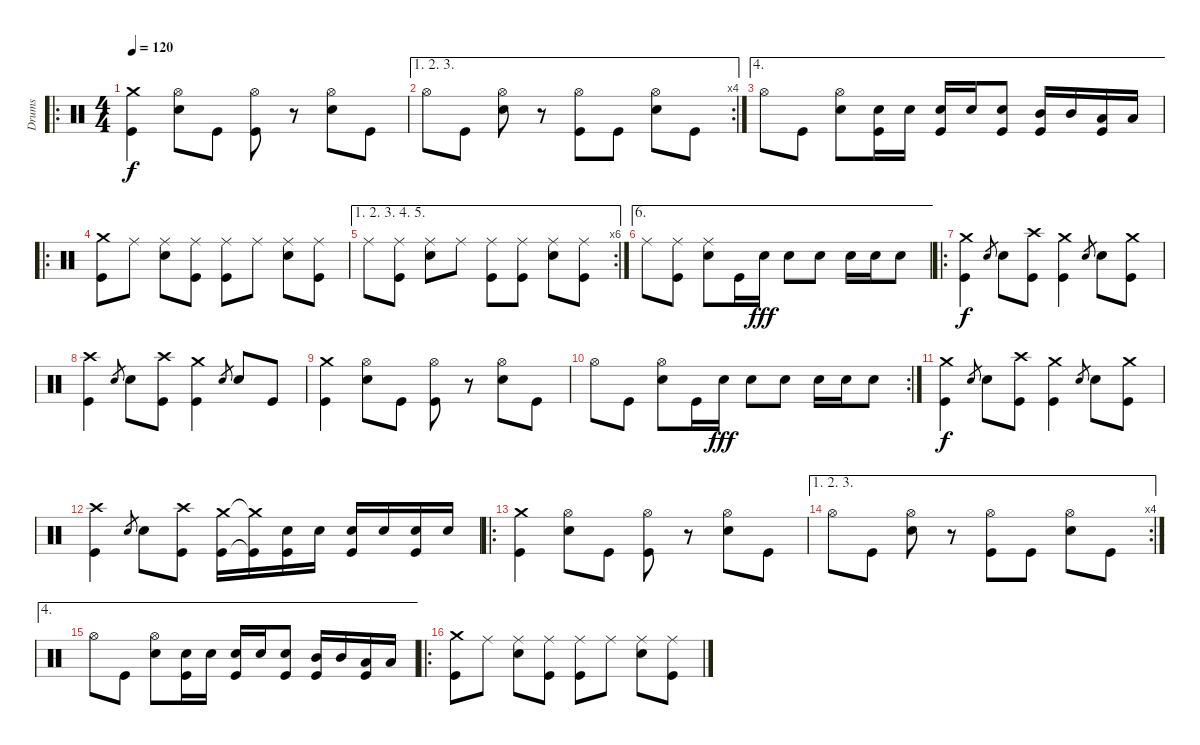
\track ("Drums" "Drums") {instrument percussion}
\staff {score}
\articulation defaults
\ro
\ts (4 4)
\tempo 120
\clef neutral
\ks c
("Crash medium (hit)" "Kick (hit)").4{dy f} ("Hi-Hat (open)" "Snare (hit) 2").8 "Kick (hit)".8 ("Hi-Hat (open)" "Kick (hit)").8 r.8 ("Hi-Hat (open)" "Snare (hit) 2").8 "Kick (hit)".8 |
\ae (1 2 3)
\rc 4 "Hi-Hat (open)".8 "Kick (hit)".8
("Hi-Hat (open)" "Snare (hit) 2").8 r.8 ("Hi-Hat (open)" "Kick (hit)").8 "Kick (hit)".8 ("Hi-Hat (open)" "Snare (hit) 2").8 "Kick (hit)".8 |
\ae 4 "Hi-Hat (open)".8 "Kick (hit)".8
("Hi-Hat (open)" "Snare (hit) 2").8 ("Snare (hit) 2" "Kick (hit)").16 "Snare (hit) 2".16 ("Snare (hit) 2" "Kick (hit)").16 "Snare (hit) 2".16 ("Snare (hit) 2" "Kick (hit)").8 ("Mid Tom (hit)" "Kick (hit)").16 "Mid Tom (hit)".16 ("Low Tom (hit)" "Kick (hit)").16 "Low Tom (hit)".16 |
\ro
("Crash medium (hit)" "Kick (hit)").8 "Ride (middle)".8 ("Ride (middle)" "Snare (hit) 2").8 ("Ride (middle)" "Kick (hit)").8 ("Ride (middle)" "Kick (hit)").8 "Ride (middle)".8 ("Ride (middle)" "Snare (hit) 2").8 ("Ride (middle)" "Kick (hit)").8 |
\ae (1 2 3 4 5)
\rc 6 "Ride (middle)".8
("Ride (middle)" "Kick (hit)").8 ("Ride (middle)" "Snare (hit) 2").8 "Ride (middle)".8 ("Ride (middle)" "Kick (hit)").8 ("Ride (middle)" "Kick (hit)").8 ("Ride (middle)" "Snare (hit) 2").8 ("Ride (middle)" "Kick (hit)").8 |
\ae 6 "Ride (middle)".8
("Ride (middle)" "Kick (hit)").8 ("Ride (middle)" "Snare (hit) 2").8 "Kick (hit)".16 "Snare (hit) 2".16{dy fff} "Snare (hit) 2".8 "Snare (hit) 2".8 "Snare (hit) 2".16 "Snare (hit) 2".16 "Snare (hit) 2".8 |
\ro
("Crash medium (hit)" "Kick (hit)").4{dy f} "Snare (hit) 2".8{gr} "Snare (hit) 2".8 ("Kick (hit)" "Crash high (hit)").8 ("Kick (hit)" "Crash medium (hit)").4 "Snare (hit) 2".8{gr} "Snare (hit) 2".8 ("Kick (hit)" "Crash medium (hit)").8 |
("Kick (hit)" "Crash high (hit)").4 "Snare (hit) 2".8{gr} "Snare (hit) 2".8 ("Kick (hit)" "Crash high (hit)").8 ("Kick (hit)" "Crash medium (hit)").4 "Snare (hit) 2".8{gr} "Snare (hit) 2".8 "Kick (hit)".8 |
("Crash medium (hit)" "Kick (hit)").4 ("Hi-Hat (open)" "Snare (hit) 2").8 "Kick (hit)".8 ("Hi-Hat (open)" "Kick (hit)").8 r.8 ("Hi-Hat (open)" "Snare (hit) 2").8 "Kick (hit)".8 |
\rc 2 "Hi-Hat (open)".8 "Kick (hit)".8
("Hi-Hat (open)" "Snare (hit) 2").8 "Kick (hit)".16 "Snare (hit) 2".16{dy fff} "Snare (hit) 2".8 "Snare (hit) 2".8 "Snare (hit) 2".16 "Snare (hit) 2".16 "Snare (hit) 2".8 |
("Crash medium (hit)" "Kick (hit)").4{dy f} "Snare (hit) 2".8{gr} "Snare (hit) 2".8 ("Kick (hit)" "Crash high (hit)").8 ("Kick (hit)" "Crash medium (hit)").4 "Snare (hit) 2".8{gr} "Snare (hit) 2".8 ("Kick (hit)" "Crash medium (hit)").8 |
("Kick (hit)" "Crash high (hit)").4 "Snare (hit) 2".8{gr} "Snare (hit) 2".8 ("Kick (hit)" "Crash high (hit)").8 ("Kick (hit)" "Crash medium (hit)").16 ("Kick (hit)"{t} "Crash medium (hit)"{t}).16 ("Snare (hit) 2" "Kick (hit)").16 "Snare (hit) 2".16 ("Snare (hit) 2" "Kick (hit)").16 "Snare (hit) 2".16 ("Snare (hit) 2" "Kick (hit)").16 "Snare (hit) 2".16 |
\ro
("Crash medium (hit)" "Kick (hit)").4 ("Hi-Hat (open)" "Snare (hit) 2").8 "Kick (hit)".8 ("Hi-Hat (open)" "Kick (hit)").8 r.8 ("Hi-Hat (open)" "Snare (hit) 2").8 "Kick (hit)".8 |
\ae (1 2 3)
\rc 4 "Hi-Hat (open)".8 "Kick (hit)".8
("Hi-Hat (open)" "Snare (hit) 2").8 r.8 ("Hi-Hat (open)" "Kick (hit)").8 "Kick (hit)".8 ("Hi-Hat (open)" "Snare (hit) 2").8 "Kick (hit)".8 |
\ae 4 "Hi-Hat (open)".8 "Kick (hit)".8
("Hi-Hat (open)" "Snare (hit) 2").8 ("Snare (hit) 2" "Kick (hit)").16 "Snare (hit) 2".16 ("Snare (hit) 2" "Kick (hit)").16 "Snare (hit) 2".16 ("Snare (hit) 2" "Kick (hit)").8 ("Mid Tom (hit)" "Kick (hit)").16 "Mid Tom (hit)".16 ("Low Tom (hit)" "Kick (hit)").16 "Low Tom (hit)".16 |
\ro
("Crash medium (hit)" "Kick (hit)").8 "Ride (middle)".8 ("Ride (middle)" "Snare (hit) 2").8 ("Ride (middle)" "Kick (hit)").8 ("Ride (middle)" "Kick (hit)").8 "Ride (middle)".8 ("Ride (middle)" "Snare (hit) 2").8 ("Ride (middle)" "Kick (hit)").8
